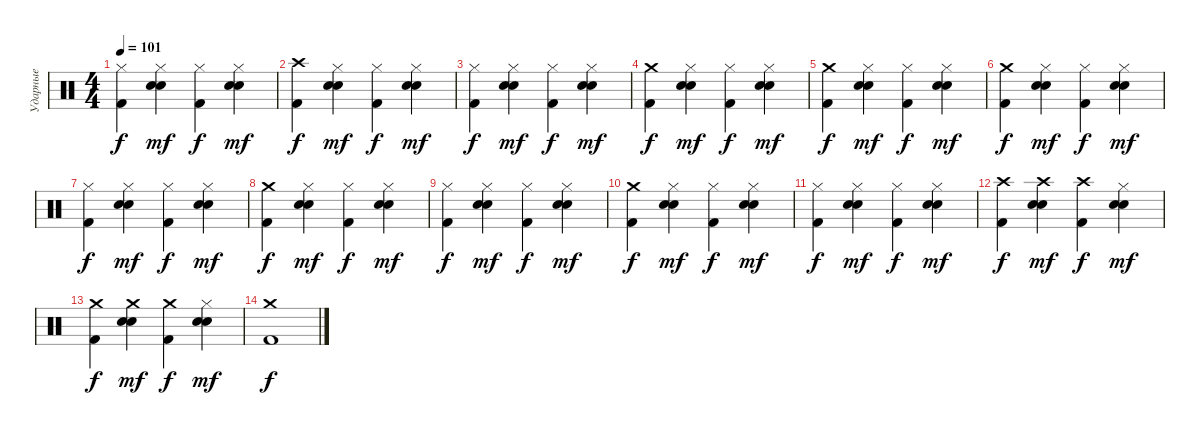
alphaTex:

\track ("Ударные" "Ударные") {instrument percussion}
\staff {score}
\articulation defaults
\ts (4 4)
\tempo 101
\clef neutral
\ks c
("Kick (hit) 2" "Hi-Hat (closed)").4{dy f} ("Electric Snare (hit)" "Hand Clap (hit)" "Hi-Hat (closed)").4{dy mf} ("Kick (hit) 2" "Hi-Hat (closed)").4{dy f} ("Electric Snare (hit)" "Hand Clap (hit)" "Hi-Hat (closed)").4{dy mf} |
("Kick (hit) 2" "Crash high (hit)").4{dy f} ("Electric Snare (hit)" "Hand Clap (hit)" "Hi-Hat (closed)").4{dy mf} ("Kick (hit) 2" "Hi-Hat (closed)").4{dy f} ("Electric Snare (hit)" "Hand Clap (hit)" "Hi-Hat (closed)").4{dy mf} |
("Kick (hit) 2" "Hi-Hat (closed)").4{dy f} ("Electric Snare (hit)" "Hand Clap (hit)" "Hi-Hat (closed)").4{dy mf} ("Kick (hit) 2" "Hi-Hat (closed)").4{dy f} ("Electric Snare (hit)" "Hand Clap (hit)" "Hi-Hat (closed)").4{dy mf} |
("Kick (hit) 2" "Crash medium (hit)").4{dy f} ("Electric Snare (hit)" "Hand Clap (hit)" "Hi-Hat (closed)").4{dy mf} ("Kick (hit) 2" "Hi-Hat (closed)").4{dy f} ("Electric Snare (hit)" "Hand Clap (hit)" "Hi-Hat (closed)").4{dy mf} |
("Kick (hit) 2" "Crash medium (hit)").4{dy f} ("Electric Snare (hit)" "Hand Clap (hit)" "Hi-Hat (closed)").4{dy mf} ("Kick (hit) 2" "Hi-Hat (closed)").4{dy f} ("Electric Snare (hit)" "Hand Clap (hit)" "Hi-Hat (closed)").4{dy mf} |
("Kick (hit) 2" "Crash medium (hit)").4{dy f} ("Electric Snare (hit)" "Hand Clap (hit)" "Hi-Hat (closed)").4{dy mf} ("Kick (hit) 2" "Hi-Hat (closed)").4{dy f} ("Electric Snare (hit)" "Hand Clap (hit)" "Hi-Hat (closed)").4{dy mf} |
("Kick (hit) 2" "Hi-Hat (closed)").4{dy f} ("Electric Snare (hit)" "Hand Clap (hit)" "Hi-Hat (closed)").4{dy mf} ("Kick (hit) 2" "Hi-Hat (closed)").4{dy f} ("Electric Snare (hit)" "Hand Clap (hit)" "Hi-Hat (closed)").4{dy mf} |
("Kick (hit) 2" "Crash medium (hit)").4{dy f} ("Electric Snare (hit)" "Hand Clap (hit)" "Hi-Hat (closed)").4{dy mf} ("Kick (hit) 2" "Hi-Hat (closed)").4{dy f} ("Electric Snare (hit)" "Hand Clap (hit)" "Hi-Hat (closed)").4{dy mf} |
("Kick (hit) 2" "Hi-Hat (closed)").4{dy f} ("Electric Snare (hit)" "Hand Clap (hit)" "Hi-Hat (closed)").4{dy mf} ("Kick (hit) 2" "Hi-Hat (closed)").4{dy f} ("Electric Snare (hit)" "Hand Clap (hit)" "Hi-Hat (closed)").4{dy mf} |
("Kick (hit) 2" "Crash medium (hit)").4{dy f} ("Electric Snare (hit)" "Hand Clap (hit)" "Hi-Hat (closed)").4{dy mf} ("Kick (hit) 2" "Hi-Hat (closed)").4{dy f} ("Electric Snare (hit)" "Hand Clap (hit)" "Hi-Hat (closed)").4{dy mf} |
("Kick (hit) 2" "Hi-Hat (closed)").4{dy f} ("Electric Snare (hit)" "Hand Clap (hit)" "Hi-Hat (closed)").4{dy mf} ("Kick (hit) 2" "Hi-Hat (closed)").4{dy f} ("Electric Snare (hit)" "Hand Clap (hit)" "Hi-Hat (closed)").4{dy mf} |
("Kick (hit) 2" "Crash high (hit)").4{dy f} ("Electric Snare (hit)" "Hand Clap (hit)" "Crash high (hit)").4{dy mf} ("Kick (hit) 2" "Crash high (hit)").4{dy f} ("Electric Snare (hit)" "Hand Clap (hit)" "Hi-Hat (closed)").4{dy mf} |
("Kick (hit) 2" "Crash medium (hit)").4{dy f} ("Electric Snare (hit)" "Hand Clap (hit)" "Crash medium (hit)").4{dy mf} ("Kick (hit) 2" "Crash medium (hit)").4{dy f} ("Electric Snare (hit)" "Hand Clap (hit)" "Hi-Hat (closed)").4{dy mf} |
("Kick (hit) 2" "Crash medium (hit)").1{dy f}
